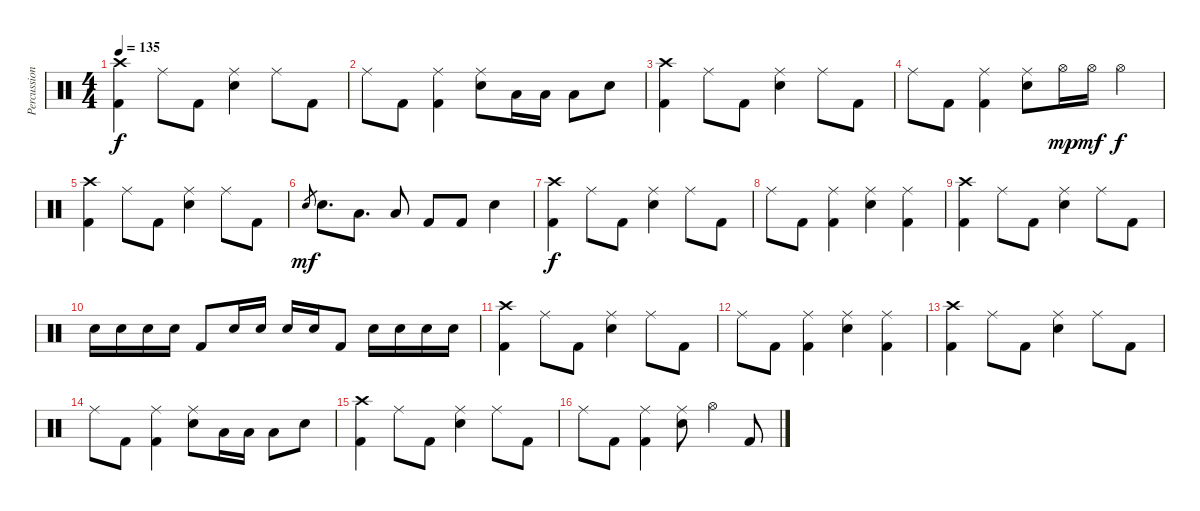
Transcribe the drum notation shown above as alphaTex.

\track ("Percussion" "Percussion") {instrument percussion}
\staff {score}
\articulation defaults
\ts (4 4)
\tempo 135
\clef neutral
\ks c
("Crash high (hit)" "Kick (hit) 2").4{dy f} "Ride (middle)".8 "Kick (hit) 2".8 ("Ride (middle)" "Electric Snare (hit)").4 "Ride (middle)".8 "Kick (hit) 2".8 |
"Ride (middle)".8 "Kick (hit) 2".8 ("Ride (middle)" "Kick (hit) 2").4 ("Ride (middle)" "Electric Snare (hit)").8 "Low Tom (hit)".16 "Low Tom (hit)".16 "Low Floor Tom (hit)".8 "Electric Snare (hit)".8 |
("Crash high (hit)" "Kick (hit) 2").4 "Ride (middle)".8 "Kick (hit) 2".8 ("Ride (middle)" "Electric Snare (hit)").4 "Ride (middle)".8 "Kick (hit) 2".8 |
"Ride (middle)".8 "Kick (hit) 2".8 ("Ride (middle)" "Kick (hit) 2").4 ("Ride (middle)" "Electric Snare (hit)").8 "Hi-Hat (open)".16{dy mp} "Hi-Hat (open)".16{dy mf} "Hi-Hat (open)".4{dy f} |
("Crash high (hit)" "Kick (hit) 2").4 "Ride (middle)".8 "Kick (hit) 2".8 ("Ride (middle)" "Electric Snare (hit)").4 "Ride (middle)".8 "Kick (hit) 2".8 |
"Electric Snare (hit)".8{gr dy mf} "Electric Snare (hit)".8{d} "Low Tom (hit)".8{d} "Low Floor Tom (hit)".8 "Kick (hit) 2".8 "Kick (hit) 2".8 "Electric Snare (hit)".4 |
("Crash high (hit)" "Kick (hit) 2").4{dy f} "Ride (middle)".8 "Kick (hit) 2".8 ("Ride (middle)" "Electric Snare (hit)").4 "Ride (middle)".8 "Kick (hit) 2".8 |
"Ride (middle)".8 "Kick (hit) 2".8 ("Ride (middle)" "Kick (hit) 2").4 ("Ride (middle)" "Electric Snare (hit)").4 ("Ride (middle)" "Kick (hit) 2").4 |
("Crash high (hit)" "Kick (hit) 2").4 "Ride (middle)".8 "Kick (hit) 2".8 ("Ride (middle)" "Electric Snare (hit)").4 "Ride (middle)".8 "Kick (hit) 2".8 |
"Electric Snare (hit)".16 "Electric Snare (hit)".16 "Electric Snare (hit)".16 "Electric Snare (hit)".16 "Kick (hit) 2".8 "Electric Snare (hit)".16 "Electric Snare (hit)".16 "Electric Snare (hit)".16 "Electric Snare (hit)".16 "Kick (hit) 2".8 "Electric Snare (hit)".16 "Electric Snare (hit)".16 "Electric Snare (hit)".16 "Electric Snare (hit)".16 |
("Crash high (hit)" "Kick (hit) 2").4 "Ride (middle)".8 "Kick (hit) 2".8 ("Ride (middle)" "Electric Snare (hit)").4 "Ride (middle)".8 "Kick (hit) 2".8 |
"Ride (middle)".8 "Kick (hit) 2".8 ("Ride (middle)" "Kick (hit) 2").4 ("Ride (middle)" "Electric Snare (hit)").4 ("Ride (middle)" "Kick (hit) 2").4 |
("Crash high (hit)" "Kick (hit) 2").4 "Ride (middle)".8 "Kick (hit) 2".8 ("Ride (middle)" "Electric Snare (hit)").4 "Ride (middle)".8 "Kick (hit) 2".8 |
"Ride (middle)".8 "Kick (hit) 2".8 ("Ride (middle)" "Kick (hit) 2").4 ("Ride (middle)" "Electric Snare (hit)").8 "Low Tom (hit)".16 "Low Tom (hit)".16 "Low Floor Tom (hit)".8 "Electric Snare (hit)".8 |
("Crash high (hit)" "Kick (hit) 2").4 "Ride (middle)".8 "Kick (hit) 2".8 ("Ride (middle)" "Electric Snare (hit)").4 "Ride (middle)".8 "Kick (hit) 2".8 |
"Ride (middle)".8 "Kick (hit) 2".8 ("Ride (middle)" "Kick (hit) 2").4 ("Ride (middle)" "Electric Snare (hit)").8 "Hi-Hat (open)".4 "Kick (hit) 2".8
